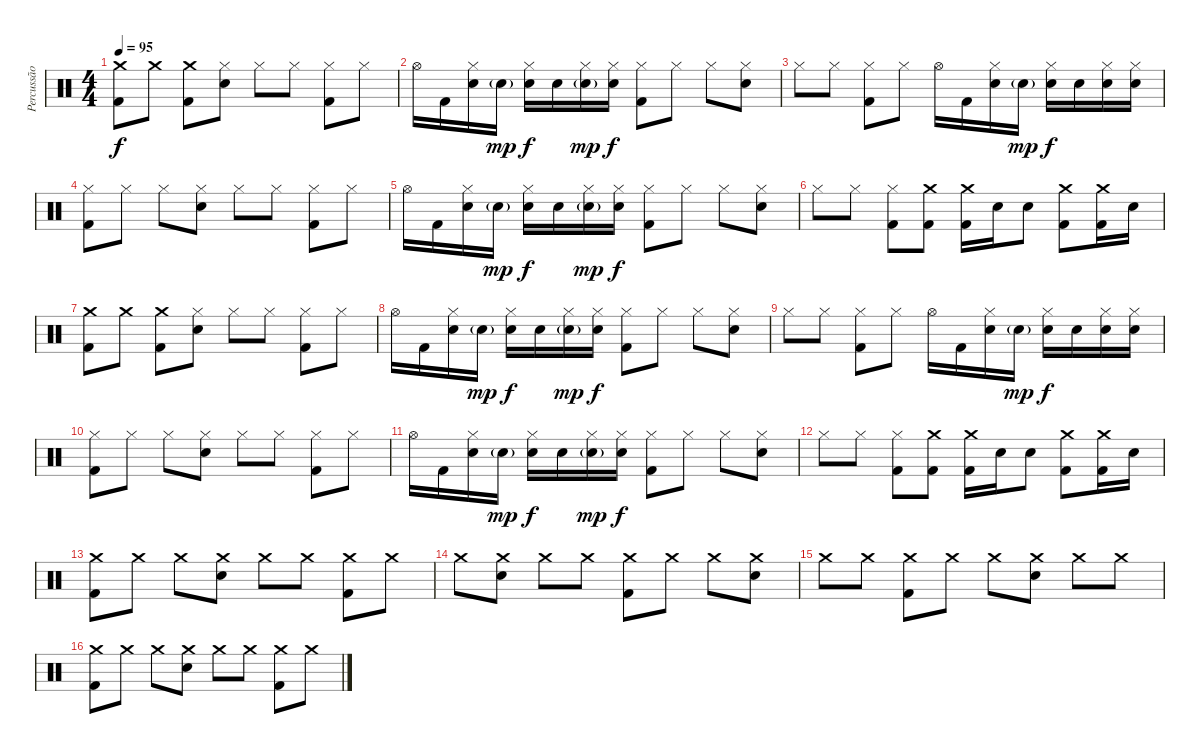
\track ("Percussão" "Percussão") {instrument percussion}
\staff {score}
\articulation defaults
\ts (4 4)
\tempo 95
\clef neutral
\ks c
("Kick (hit) 2" "Crash medium (hit)").8{dy f} "Crash medium (hit)".8 ("Kick (hit) 2" "Crash medium (hit)").8 ("Snare (hit) 2" "Hi-Hat (closed)").8 "Hi-Hat (closed)".8 "Hi-Hat (closed)".8 ("Kick (hit) 2" "Hi-Hat (closed)").8 "Hi-Hat (closed)".8 |
"Hi-Hat (open)".16 "Kick (hit) 2".16 ("Snare (hit) 2" "Hi-Hat (closed)").16 "Electric Snare (hit)"{g}.16{dy mp} ("Electric Snare (hit)" "Hi-Hat (closed)").16{dy f} "Snare (hit) 2".16 ("Electric Snare (hit)"{g} "Hi-Hat (closed)").16{dy mp} ("Snare (hit) 2" "Hi-Hat (closed)").16{dy f} ("Kick (hit) 2" "Hi-Hat (closed)").8 "Hi-Hat (closed)".8 "Hi-Hat (closed)".8 ("Snare (hit) 2" "Hi-Hat (closed)").8 |
"Hi-Hat (closed)".8 "Hi-Hat (closed)".8 ("Kick (hit) 2" "Hi-Hat (closed)").8 "Hi-Hat (closed)".8 "Hi-Hat (open)".16 "Kick (hit) 2".16 ("Snare (hit) 2" "Hi-Hat (closed)").16 "Electric Snare (hit)"{g}.16{dy mp} ("Electric Snare (hit)" "Hi-Hat (closed)").16{dy f} "Snare (hit) 2".16 ("Electric Snare (hit)" "Hi-Hat (closed)").16 ("Snare (hit) 2" "Hi-Hat (closed)").16 |
("Kick (hit) 2" "Hi-Hat (closed)").8 "Hi-Hat (closed)".8 "Hi-Hat (closed)".8 ("Snare (hit) 2" "Hi-Hat (closed)").8 "Hi-Hat (closed)".8 "Hi-Hat (closed)".8 ("Kick (hit) 2" "Hi-Hat (closed)").8 "Hi-Hat (closed)".8 |
"Hi-Hat (open)".16 "Kick (hit) 2".16 ("Snare (hit) 2" "Hi-Hat (closed)").16 "Electric Snare (hit)"{g}.16{dy mp} ("Electric Snare (hit)" "Hi-Hat (closed)").16{dy f} "Snare (hit) 2".16 ("Electric Snare (hit)"{g} "Hi-Hat (closed)").16{dy mp} ("Snare (hit) 2" "Hi-Hat (closed)").16{dy f} ("Kick (hit) 2" "Hi-Hat (closed)").8 "Hi-Hat (closed)".8 "Hi-Hat (closed)".8 ("Snare (hit) 2" "Hi-Hat (closed)").8 |
"Hi-Hat (closed)".8 "Hi-Hat (closed)".8 ("Kick (hit) 2" "Hi-Hat (closed)").8 ("Kick (hit) 2" "Crash medium (hit)").8 ("Kick (hit) 2" "Crash medium (hit)").16 "Snare (hit) 2".16 "Electric Snare (hit)".8 ("Kick (hit) 2" "Crash medium (hit)").8 ("Kick (hit) 2" "Crash medium (hit)").16 "Snare (hit) 2".16 |
("Kick (hit) 2" "Crash medium (hit)").8 "Crash medium (hit)".8 ("Kick (hit) 2" "Crash medium (hit)").8 ("Snare (hit) 2" "Hi-Hat (closed)").8 "Hi-Hat (closed)".8 "Hi-Hat (closed)".8 ("Kick (hit) 2" "Hi-Hat (closed)").8 "Hi-Hat (closed)".8 |
"Hi-Hat (open)".16 "Kick (hit) 2".16 ("Snare (hit) 2" "Hi-Hat (closed)").16 "Electric Snare (hit)"{g}.16{dy mp} ("Electric Snare (hit)" "Hi-Hat (closed)").16{dy f} "Snare (hit) 2".16 ("Electric Snare (hit)"{g} "Hi-Hat (closed)").16{dy mp} ("Snare (hit) 2" "Hi-Hat (closed)").16{dy f} ("Kick (hit) 2" "Hi-Hat (closed)").8 "Hi-Hat (closed)".8 "Hi-Hat (closed)".8 ("Snare (hit) 2" "Hi-Hat (closed)").8 |
"Hi-Hat (closed)".8 "Hi-Hat (closed)".8 ("Kick (hit) 2" "Hi-Hat (closed)").8 "Hi-Hat (closed)".8 "Hi-Hat (open)".16 "Kick (hit) 2".16 ("Snare (hit) 2" "Hi-Hat (closed)").16 "Electric Snare (hit)"{g}.16{dy mp} ("Electric Snare (hit)" "Hi-Hat (closed)").16{dy f} "Snare (hit) 2".16 ("Electric Snare (hit)" "Hi-Hat (closed)").16 ("Snare (hit) 2" "Hi-Hat (closed)").16 |
("Kick (hit) 2" "Hi-Hat (closed)").8 "Hi-Hat (closed)".8 "Hi-Hat (closed)".8 ("Snare (hit) 2" "Hi-Hat (closed)").8 "Hi-Hat (closed)".8 "Hi-Hat (closed)".8 ("Kick (hit) 2" "Hi-Hat (closed)").8 "Hi-Hat (closed)".8 |
"Hi-Hat (open)".16 "Kick (hit) 2".16 ("Snare (hit) 2" "Hi-Hat (closed)").16 "Electric Snare (hit)"{g}.16{dy mp} ("Electric Snare (hit)" "Hi-Hat (closed)").16{dy f} "Snare (hit) 2".16 ("Electric Snare (hit)"{g} "Hi-Hat (closed)").16{dy mp} ("Snare (hit) 2" "Hi-Hat (closed)").16{dy f} ("Kick (hit) 2" "Hi-Hat (closed)").8 "Hi-Hat (closed)".8 "Hi-Hat (closed)".8 ("Snare (hit) 2" "Hi-Hat (closed)").8 |
"Hi-Hat (closed)".8 "Hi-Hat (closed)".8 ("Kick (hit) 2" "Hi-Hat (closed)").8 ("Kick (hit) 2" "Crash medium (hit)").8 ("Kick (hit) 2" "Crash medium (hit)").16 "Snare (hit) 2".16 "Electric Snare (hit)".8 ("Kick (hit) 2" "Crash medium (hit)").8 ("Kick (hit) 2" "Crash medium (hit)").16 "Snare (hit) 2".16 |
("Kick (hit) 2" "Crash medium (hit)").8 "Crash medium (hit)".8 "Crash medium (hit)".8 ("Snare (hit) 2" "Crash medium (hit)").8 "Crash medium (hit)".8 "Crash medium (hit)".8 ("Kick (hit) 2" "Crash medium (hit)").8 "Crash medium (hit)".8 |
"Crash medium (hit)".8 ("Snare (hit) 2" "Crash medium (hit)").8 "Crash medium (hit)".8 "Crash medium (hit)".8 ("Kick (hit) 2" "Crash medium (hit)").8 "Crash medium (hit)".8 "Crash medium (hit)".8 ("Snare (hit) 2" "Crash medium (hit)").8 |
"Crash medium (hit)".8 "Crash medium (hit)".8 ("Kick (hit) 2" "Crash medium (hit)").8 "Crash medium (hit)".8 "Crash medium (hit)".8 ("Snare (hit) 2" "Crash medium (hit)").8 "Crash medium (hit)".8 "Crash medium (hit)".8 |
("Kick (hit) 2" "Crash medium (hit)").8 "Crash medium (hit)".8 "Crash medium (hit)".8 ("Snare (hit) 2" "Crash medium (hit)").8 "Crash medium (hit)".8 "Crash medium (hit)".8 ("Kick (hit) 2" "Crash medium (hit)").8 "Crash medium (hit)".8
